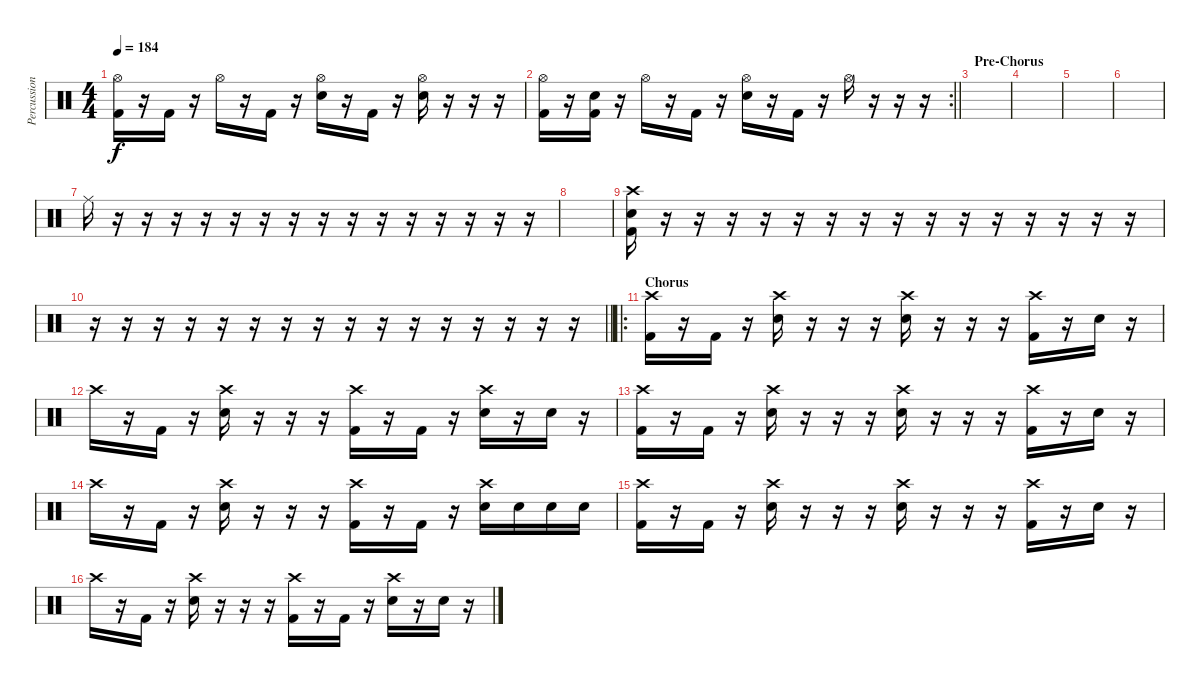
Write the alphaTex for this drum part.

\track ("Percussion" "Percussion") {instrument percussion}
\staff {score}
\articulation defaults
\ts (4 4)
\tempo 184
\clef neutral
\ks c
("Hi-Hat (open)" "Kick (hit) 2").16{dy f} r.16 "Kick (hit) 2".16 r.16 "Hi-Hat (open)".16 r.16 "Kick (hit) 2".16 r.16 ("Hi-Hat (open)" "Electric Snare (hit)").16 r.16 "Kick (hit) 2".16 r.16 ("Hi-Hat (open)" "Electric Snare (hit)").16 r.16 r.16 r.16 |
\rc 2
\barLineRight lightlight
("Hi-Hat (open)" "Kick (hit) 2").16 r.16 ("Electric Snare (hit)" "Kick (hit) 2").16 r.16 "Hi-Hat (open)".16 r.16 "Kick (hit) 2".16 r.16 ("Hi-Hat (open)" "Electric Snare (hit)").16 r.16 "Kick (hit) 2".16 r.16 "Hi-Hat (open)".16 r.16 r.16 r.16 |
\section ("" "Pre-Chorus")
|
|
|
|
"Ride (middle)".16 r.16 r.16 r.16 r.16 r.16 r.16 r.16 r.16 r.16 r.16 r.16 r.16 r.16 r.16 r.16 |
|
("Crash high (hit)" "Electric Snare (hit)" "Kick (hit) 2").16 r.16 r.16 r.16 r.16 r.16 r.16 r.16 r.16 r.16 r.16 r.16 r.16 r.16 r.16 r.16 |
\barLineRight lightlight
r.16 r.16 r.16 r.16 r.16 r.16 r.16 r.16 r.16 r.16 r.16 r.16 r.16 r.16 r.16 r.16 |
\ro
\section ("" "Chorus")
("Crash high (hit)" "Kick (hit) 2").16 r.16 "Kick (hit) 2".16 r.16 ("Crash high (hit)" "Electric Snare (hit)").16 r.16 r.16 r.16 ("Crash high (hit)" "Electric Snare (hit)").16 r.16 r.16 r.16 ("Crash high (hit)" "Kick (hit) 2").16 r.16 "Electric Snare (hit)".16 r.16 |
"Crash high (hit)".16 r.16 "Kick (hit) 2".16 r.16 ("Crash high (hit)" "Electric Snare (hit)").16 r.16 r.16 r.16 ("Crash high (hit)" "Kick (hit) 2").16 r.16 "Kick (hit) 2".16 r.16 ("Crash high (hit)" "Electric Snare (hit)").16 r.16 "Electric Snare (hit)".16 r.16 |
("Crash high (hit)" "Kick (hit) 2").16 r.16 "Kick (hit) 2".16 r.16 ("Crash high (hit)" "Electric Snare (hit)").16 r.16 r.16 r.16 ("Crash high (hit)" "Electric Snare (hit)").16 r.16 r.16 r.16 ("Crash high (hit)" "Kick (hit) 2").16 r.16 "Electric Snare (hit)".16 r.16 |
"Crash high (hit)".16 r.16 "Kick (hit) 2".16 r.16 ("Crash high (hit)" "Electric Snare (hit)").16 r.16 r.16 r.16 ("Crash high (hit)" "Kick (hit) 2").16 r.16 "Kick (hit) 2".16 r.16 ("Crash high (hit)" "Electric Snare (hit)").16 "Electric Snare (hit)".16 "Electric Snare (hit)".16 "Electric Snare (hit)".16 |
("Crash high (hit)" "Kick (hit) 2").16 r.16 "Kick (hit) 2".16 r.16 ("Crash high (hit)" "Electric Snare (hit)").16 r.16 r.16 r.16 ("Crash high (hit)" "Electric Snare (hit)").16 r.16 r.16 r.16 ("Crash high (hit)" "Kick (hit) 2").16 r.16 "Electric Snare (hit)".16 r.16 |
"Crash high (hit)".16 r.16 "Kick (hit) 2".16 r.16 ("Crash high (hit)" "Electric Snare (hit)").16 r.16 r.16 r.16 ("Crash high (hit)" "Kick (hit) 2").16 r.16 "Kick (hit) 2".16 r.16 ("Crash high (hit)" "Electric Snare (hit)").16 r.16 "Electric Snare (hit)".16 r.16
